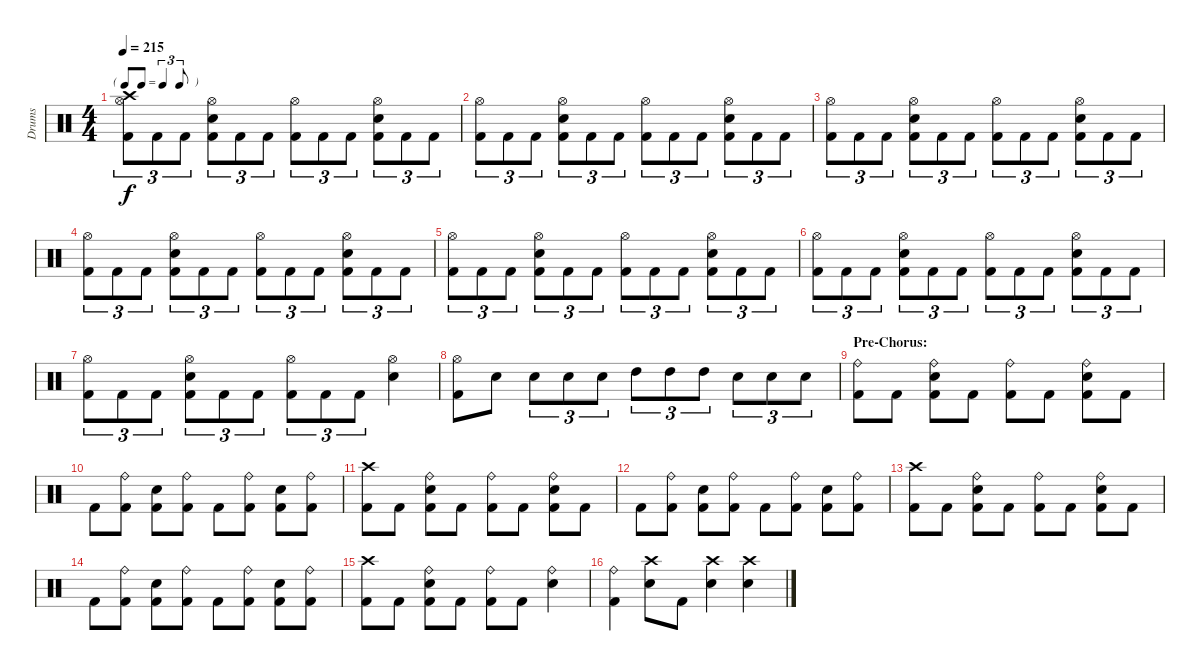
\track ("Drums" "Drums") {instrument percussion}
\staff {score}
\articulation defaults
\ts (4 4)
\tf triplet8th
\tempo 215
\clef neutral
\ks c
("Hi-Hat (open)" "Crash high (hit)" "Kick (hit) 2").8{tu (3 2) dy f} "Kick (hit) 2".8{tu (3 2)} "Kick (hit) 2".8{tu (3 2)} ("Hi-Hat (open)" "Electric Snare (hit)" "Kick (hit) 2").8{tu (3 2)} "Kick (hit) 2".8{tu (3 2)} "Kick (hit) 2".8{tu (3 2)} ("Hi-Hat (open)" "Kick (hit) 2").8{tu (3 2)} "Kick (hit) 2".8{tu (3 2)} "Kick (hit) 2".8{tu (3 2)} ("Hi-Hat (open)" "Electric Snare (hit)" "Kick (hit) 2").8{tu (3 2)} "Kick (hit) 2".8{tu (3 2)} "Kick (hit) 2".8{tu (3 2)} |
("Hi-Hat (open)" "Kick (hit) 2").8{tu (3 2)} "Kick (hit) 2".8{tu (3 2)} "Kick (hit) 2".8{tu (3 2)} ("Hi-Hat (open)" "Electric Snare (hit)" "Kick (hit) 2").8{tu (3 2)} "Kick (hit) 2".8{tu (3 2)} "Kick (hit) 2".8{tu (3 2)} ("Hi-Hat (open)" "Kick (hit) 2").8{tu (3 2)} "Kick (hit) 2".8{tu (3 2)} "Kick (hit) 2".8{tu (3 2)} ("Hi-Hat (open)" "Electric Snare (hit)" "Kick (hit) 2").8{tu (3 2)} "Kick (hit) 2".8{tu (3 2)} "Kick (hit) 2".8{tu (3 2)} |
("Hi-Hat (open)" "Kick (hit) 2").8{tu (3 2)} "Kick (hit) 2".8{tu (3 2)} "Kick (hit) 2".8{tu (3 2)} ("Hi-Hat (open)" "Electric Snare (hit)" "Kick (hit) 2").8{tu (3 2)} "Kick (hit) 2".8{tu (3 2)} "Kick (hit) 2".8{tu (3 2)} ("Hi-Hat (open)" "Kick (hit) 2").8{tu (3 2)} "Kick (hit) 2".8{tu (3 2)} "Kick (hit) 2".8{tu (3 2)} ("Hi-Hat (open)" "Electric Snare (hit)" "Kick (hit) 2").8{tu (3 2)} "Kick (hit) 2".8{tu (3 2)} "Kick (hit) 2".8{tu (3 2)} |
("Hi-Hat (open)" "Kick (hit) 2").8{tu (3 2)} "Kick (hit) 2".8{tu (3 2)} "Kick (hit) 2".8{tu (3 2)} ("Hi-Hat (open)" "Electric Snare (hit)" "Kick (hit) 2").8{tu (3 2)} "Kick (hit) 2".8{tu (3 2)} "Kick (hit) 2".8{tu (3 2)} ("Hi-Hat (open)" "Kick (hit) 2").8{tu (3 2)} "Kick (hit) 2".8{tu (3 2)} "Kick (hit) 2".8{tu (3 2)} ("Hi-Hat (open)" "Electric Snare (hit)" "Kick (hit) 2").8{tu (3 2)} "Kick (hit) 2".8{tu (3 2)} "Kick (hit) 2".8{tu (3 2)} |
("Hi-Hat (open)" "Kick (hit) 2").8{tu (3 2)} "Kick (hit) 2".8{tu (3 2)} "Kick (hit) 2".8{tu (3 2)} ("Hi-Hat (open)" "Electric Snare (hit)" "Kick (hit) 2").8{tu (3 2)} "Kick (hit) 2".8{tu (3 2)} "Kick (hit) 2".8{tu (3 2)} ("Hi-Hat (open)" "Kick (hit) 2").8{tu (3 2)} "Kick (hit) 2".8{tu (3 2)} "Kick (hit) 2".8{tu (3 2)} ("Hi-Hat (open)" "Electric Snare (hit)" "Kick (hit) 2").8{tu (3 2)} "Kick (hit) 2".8{tu (3 2)} "Kick (hit) 2".8{tu (3 2)} |
("Hi-Hat (open)" "Kick (hit) 2").8{tu (3 2)} "Kick (hit) 2".8{tu (3 2)} "Kick (hit) 2".8{tu (3 2)} ("Hi-Hat (open)" "Electric Snare (hit)" "Kick (hit) 2").8{tu (3 2)} "Kick (hit) 2".8{tu (3 2)} "Kick (hit) 2".8{tu (3 2)} ("Hi-Hat (open)" "Kick (hit) 2").8{tu (3 2)} "Kick (hit) 2".8{tu (3 2)} "Kick (hit) 2".8{tu (3 2)} ("Hi-Hat (open)" "Electric Snare (hit)" "Kick (hit) 2").8{tu (3 2)} "Kick (hit) 2".8{tu (3 2)} "Kick (hit) 2".8{tu (3 2)} |
("Hi-Hat (open)" "Kick (hit) 2").8{tu (3 2)} "Kick (hit) 2".8{tu (3 2)} "Kick (hit) 2".8{tu (3 2)} ("Hi-Hat (open)" "Electric Snare (hit)" "Kick (hit) 2").8{tu (3 2)} "Kick (hit) 2".8{tu (3 2)} "Kick (hit) 2".8{tu (3 2)} ("Hi-Hat (open)" "Kick (hit) 2").8{tu (3 2)} "Kick (hit) 2".8{tu (3 2)} "Kick (hit) 2".8{tu (3 2)} ("Hi-Hat (open)" "Electric Snare (hit)").4 |
("Hi-Hat (open)" "Kick (hit) 2").8 "Electric Snare (hit)".8 "Electric Snare (hit)".8{tu (3 2)} "Electric Snare (hit)".8{tu (3 2)} "Electric Snare (hit)".8{tu (3 2)} "High Tom (hit)".8{tu (3 2)} "High Tom (hit)".8{tu (3 2)} "High Tom (hit)".8{tu (3 2)} "Electric Snare (hit)".8{tu (3 2)} "Electric Snare (hit)".8{tu (3 2)} "Electric Snare (hit)".8{tu (3 2)} |
\section ("" "Pre-Chorus:")
("Ride (bell)" "Kick (hit) 2").8 "Kick (hit) 2".8 ("Ride (bell)" "Electric Snare (hit)" "Kick (hit) 2").8 "Kick (hit) 2".8 ("Ride (bell)" "Kick (hit) 2").8 "Kick (hit) 2".8 ("Ride (bell)" "Electric Snare (hit)" "Kick (hit) 2").8 "Kick (hit) 2".8 |
"Kick (hit) 2".8 ("Ride (bell)" "Kick (hit) 2").8 ("Electric Snare (hit)" "Kick (hit) 2").8 ("Ride (bell)" "Kick (hit) 2").8 "Kick (hit) 2".8 ("Ride (bell)" "Kick (hit) 2").8 ("Electric Snare (hit)" "Kick (hit) 2").8 ("Ride (bell)" "Kick (hit) 2").8 |
("Crash high (hit)" "Kick (hit) 2").8 "Kick (hit) 2".8 ("Ride (bell)" "Electric Snare (hit)" "Kick (hit) 2").8 "Kick (hit) 2".8 ("Ride (bell)" "Kick (hit) 2").8 "Kick (hit) 2".8 ("Ride (bell)" "Electric Snare (hit)" "Kick (hit) 2").8 "Kick (hit) 2".8 |
"Kick (hit) 2".8 ("Ride (bell)" "Kick (hit) 2").8 ("Electric Snare (hit)" "Kick (hit) 2").8 ("Ride (bell)" "Kick (hit) 2").8 "Kick (hit) 2".8 ("Ride (bell)" "Kick (hit) 2").8 ("Electric Snare (hit)" "Kick (hit) 2").8 ("Ride (bell)" "Kick (hit) 2").8 |
("Crash high (hit)" "Kick (hit) 2").8 "Kick (hit) 2".8 ("Ride (bell)" "Electric Snare (hit)" "Kick (hit) 2").8 "Kick (hit) 2".8 ("Ride (bell)" "Kick (hit) 2").8 "Kick (hit) 2".8 ("Ride (bell)" "Electric Snare (hit)" "Kick (hit) 2").8 "Kick (hit) 2".8 |
"Kick (hit) 2".8 ("Ride (bell)" "Kick (hit) 2").8 ("Electric Snare (hit)" "Kick (hit) 2").8 ("Ride (bell)" "Kick (hit) 2").8 "Kick (hit) 2".8 ("Ride (bell)" "Kick (hit) 2").8 ("Electric Snare (hit)" "Kick (hit) 2").8 ("Ride (bell)" "Kick (hit) 2").8 |
("Crash high (hit)" "Kick (hit) 2").8 "Kick (hit) 2".8 ("Ride (bell)" "Electric Snare (hit)" "Kick (hit) 2").8 "Kick (hit) 2".8 ("Ride (bell)" "Kick (hit) 2").8 "Kick (hit) 2".8 ("Ride (bell)" "Electric Snare (hit)").4 |
("Ride (bell)" "Kick (hit) 2").4 ("Crash high (hit)" "Electric Snare (hit)").8 "Kick (hit) 2".8 ("Crash high (hit)" "Electric Snare (hit)").4 ("Crash high (hit)" "Electric Snare (hit)").4
